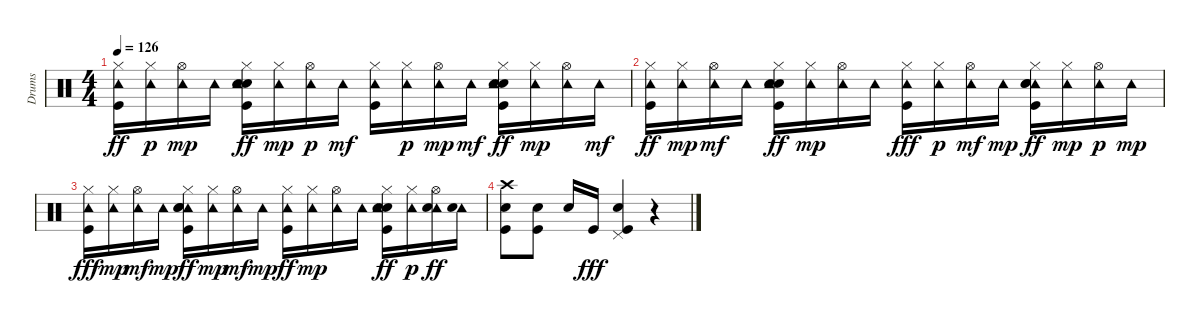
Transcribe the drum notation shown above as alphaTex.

\track ("Drums" "Drums") {instrument percussion}
\staff {score}
\articulation defaults
\ts (4 4)
\tempo 126
\clef neutral
\ks c
("Kick (hit)" "Tambourine (hit)" "Hi-Hat (closed)").16{dy ff} ("Hi-Hat (closed)" "Tambourine (hit)").16{dy p} ("Hi-Hat (open)" "Tambourine (hit)").16{dy mp} "Tambourine (hit)".16 ("Hand Clap (hit)" "Kick (hit)" "Snare (hit) 2" "Tambourine (hit)" "Hi-Hat (closed)").16{dy ff} ("Hi-Hat (closed)" "Tambourine (hit)").16{dy mp} ("Hi-Hat (open)" "Tambourine (hit)").16{dy p} "Tambourine (hit)".16{dy mf} ("Kick (hit)" "Hi-Hat (closed)" "Tambourine (hit)").16 ("Tambourine (hit)" "Hi-Hat (closed)").16{dy p} ("Hi-Hat (open)" "Tambourine (hit)").16{dy mp} "Tambourine (hit)".16{dy mf} ("Kick (hit)" "Snare (hit) 2" "Tambourine (hit)" "Hand Clap (hit)" "Hi-Hat (closed)").16{dy ff} ("Tambourine (hit)" "Hi-Hat (closed)").16{dy mp} ("Hi-Hat (open)" "Tambourine (hit)").16 "Tambourine (hit)".16{dy mf} |
("Kick (hit)" "Tambourine (hit)" "Hi-Hat (closed)").16{dy ff} ("Tambourine (hit)" "Hi-Hat (closed)").16{dy mp} ("Tambourine (hit)" "Hi-Hat (open)").16{dy mf} "Tambourine (hit)".16 ("Hand Clap (hit)" "Tambourine (hit)" "Kick (hit)" "Snare (hit) 2" "Hi-Hat (closed)").16{dy ff} ("Tambourine (hit)" "Hi-Hat (closed)").16{dy mp} ("Hi-Hat (open)" "Tambourine (hit)").16 "Tambourine (hit)".16 ("Tambourine (hit)" "Hi-Hat (closed)" "Kick (hit)").16{dy fff} ("Tambourine (hit)" "Hi-Hat (closed)").16{dy p} ("Tambourine (hit)" "Hi-Hat (open)").16{dy mf} "Tambourine (hit)".16{dy mp} ("Tambourine (hit)" "Hi-Hat (closed)" "Hand Clap (hit)" "Kick (hit)" "Snare (hit) 2").16{dy ff} ("Tambourine (hit)" "Hi-Hat (closed)").16{dy mp} ("Hi-Hat (open)" "Tambourine (hit)").16{dy p} "Tambourine (hit)".16{dy mp} |
("Tambourine (hit)" "Hi-Hat (closed)" "Kick (hit)").16{dy fff} ("Tambourine (hit)" "Hi-Hat (closed)").16{dy mp} ("Tambourine (hit)" "Hi-Hat (open)").16{dy mf} "Tambourine (hit)".16{dy mp} ("Tambourine (hit)" "Hi-Hat (closed)" "Kick (hit)" "Snare (hit) 2" "Hand Clap (hit)").16{dy ff} ("Tambourine (hit)" "Hi-Hat (closed)").16{dy mp} ("Tambourine (hit)" "Hi-Hat (open)").16{dy mf} "Tambourine (hit)".16{dy mp} ("Kick (hit)" "Tambourine (hit)" "Hi-Hat (closed)").16{dy ff} ("Hi-Hat (closed)" "Tambourine (hit)").16{dy mp} ("Hi-Hat (open)" "Tambourine (hit)").16 "Tambourine (hit)".16 ("Snare (hit) 2" "Hand Clap (hit)" "Kick (hit)" "Tambourine (hit)" "Hi-Hat (closed)").16{dy ff} ("Hi-Hat (closed)" "Tambourine (hit)").16{dy p} ("Hi-Hat (open)" "Tambourine (hit)" "Snare (hit) 2").16{dy ff} ("Tambourine (hit)" "Snare (hit) 2").16 |
("Crash high (hit)" "Kick (hit)" "Snare (hit) 2").8 ("Kick (hit)" "Snare (hit) 2").8 "Snare (hit) 2".16 "Kick (hit)".16{dy fff} ("Pedal Hi-Hat (hit)" "Kick (hit)" "Snare (hit) 2").4 r.4
